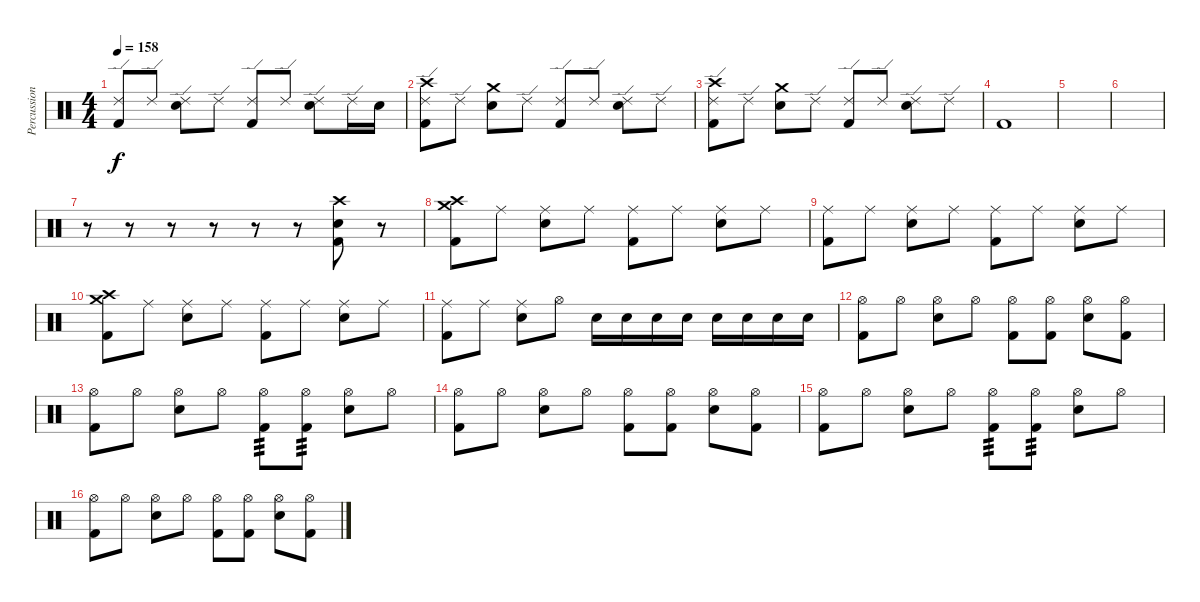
\track ("Percussion" "Percussion") {instrument percussion}
\staff {score}
\articulation defaults
\ts (4 4)
\tempo 158
\clef neutral
\ks c
("Ride (edge) 2" "Kick (hit) 2").8{dy f} "Ride (edge) 2".8 ("Ride (edge) 2" "Electric Snare (hit)").8 "Ride (edge) 2".8 ("Ride (edge) 2" "Kick (hit) 2").8 "Ride (edge) 2".8 ("Ride (edge) 2" "Electric Snare (hit)").8 "Ride (edge) 2".16 "Electric Snare (hit)".16 |
("Ride (edge) 2" "Crash high (hit)" "Kick (hit) 2").8 "Ride (edge) 2".8 ("Crash medium (hit)" "Electric Snare (hit)").8 "Ride (edge) 2".8 ("Ride (edge) 2" "Kick (hit) 2").8 "Ride (edge) 2".8 ("Ride (edge) 2" "Electric Snare (hit)").8 "Ride (edge) 2".8 |
("Ride (edge) 2" "Crash high (hit)" "Kick (hit) 2").8 "Ride (edge) 2".8 ("Crash medium (hit)" "Electric Snare (hit)").8 "Ride (edge) 2".8 ("Ride (edge) 2" "Kick (hit) 2").8 "Ride (edge) 2".8 ("Ride (edge) 2" "Electric Snare (hit)").8 "Ride (edge) 2".8 |
"Kick (hit) 2".1 |
|
|
r.8 r.8 r.8 r.8 r.8 r.8 ("Crash high (hit)" "Electric Snare (hit)" "Kick (hit) 2").8 r.8 |
("Crash high (hit)" "Crash medium (hit)" "Kick (hit) 2").8 "Ride (middle)".8 ("Ride (middle)" "Electric Snare (hit)").8 "Ride (middle)".8 ("Ride (middle)" "Kick (hit) 2").8 "Ride (middle)".8 ("Ride (middle)" "Electric Snare (hit)").8 "Ride (middle)".8 |
("Ride (middle)" "Kick (hit) 2").8 "Ride (middle)".8 ("Ride (middle)" "Electric Snare (hit)").8 "Ride (middle)".8 ("Ride (middle)" "Kick (hit) 2").8 "Ride (middle)".8 ("Ride (middle)" "Electric Snare (hit)").8 "Ride (middle)".8 |
("Crash high (hit)" "Crash medium (hit)" "Kick (hit) 2").8 "Ride (middle)".8 ("Ride (middle)" "Electric Snare (hit)").8 "Ride (middle)".8 ("Ride (middle)" "Kick (hit) 2").8 "Ride (middle)".8 ("Ride (middle)" "Electric Snare (hit)").8 "Ride (middle)".8 |
("Ride (middle)" "Kick (hit) 2").8 "Ride (middle)".8 ("Ride (middle)" "Electric Snare (hit)").8 "Hi-Hat (open)".8 "Electric Snare (hit)".16 "Electric Snare (hit)".16 "Electric Snare (hit)".16 "Electric Snare (hit)".16 "Electric Snare (hit)".16 "Electric Snare (hit)".16 "Electric Snare (hit)".16 "Electric Snare (hit)".16 |
("Hi-Hat (open)" "Kick (hit) 2").8 "Hi-Hat (open)".8 ("Hi-Hat (open)" "Electric Snare (hit)").8 "Hi-Hat (open)".8 ("Hi-Hat (open)" "Kick (hit) 2").8 ("Hi-Hat (open)" "Kick (hit) 2").8 ("Hi-Hat (open)" "Electric Snare (hit)").8 ("Hi-Hat (open)" "Kick (hit) 2").8 |
("Hi-Hat (open)" "Kick (hit) 2").8 "Hi-Hat (open)".8 ("Hi-Hat (open)" "Electric Snare (hit)").8 "Hi-Hat (open)".8 ("Hi-Hat (open)" "Kick (hit) 2").8{tp 3} ("Hi-Hat (open)" "Kick (hit) 2").8{tp 3} ("Hi-Hat (open)" "Electric Snare (hit)").8 "Hi-Hat (open)".8 |
("Hi-Hat (open)" "Kick (hit) 2").8 "Hi-Hat (open)".8 ("Hi-Hat (open)" "Electric Snare (hit)").8 "Hi-Hat (open)".8 ("Hi-Hat (open)" "Kick (hit) 2").8 ("Hi-Hat (open)" "Kick (hit) 2").8 ("Hi-Hat (open)" "Electric Snare (hit)").8 ("Hi-Hat (open)" "Kick (hit) 2").8 |
("Hi-Hat (open)" "Kick (hit) 2").8 "Hi-Hat (open)".8 ("Hi-Hat (open)" "Electric Snare (hit)").8 "Hi-Hat (open)".8 ("Hi-Hat (open)" "Kick (hit) 2").8{tp 3} ("Hi-Hat (open)" "Kick (hit) 2").8{tp 3} ("Hi-Hat (open)" "Electric Snare (hit)").8 "Hi-Hat (open)".8 |
("Hi-Hat (open)" "Kick (hit) 2").8 "Hi-Hat (open)".8 ("Hi-Hat (open)" "Electric Snare (hit)").8 "Hi-Hat (open)".8 ("Hi-Hat (open)" "Kick (hit) 2").8 ("Hi-Hat (open)" "Kick (hit) 2").8 ("Hi-Hat (open)" "Electric Snare (hit)").8 ("Hi-Hat (open)" "Kick (hit) 2").8
